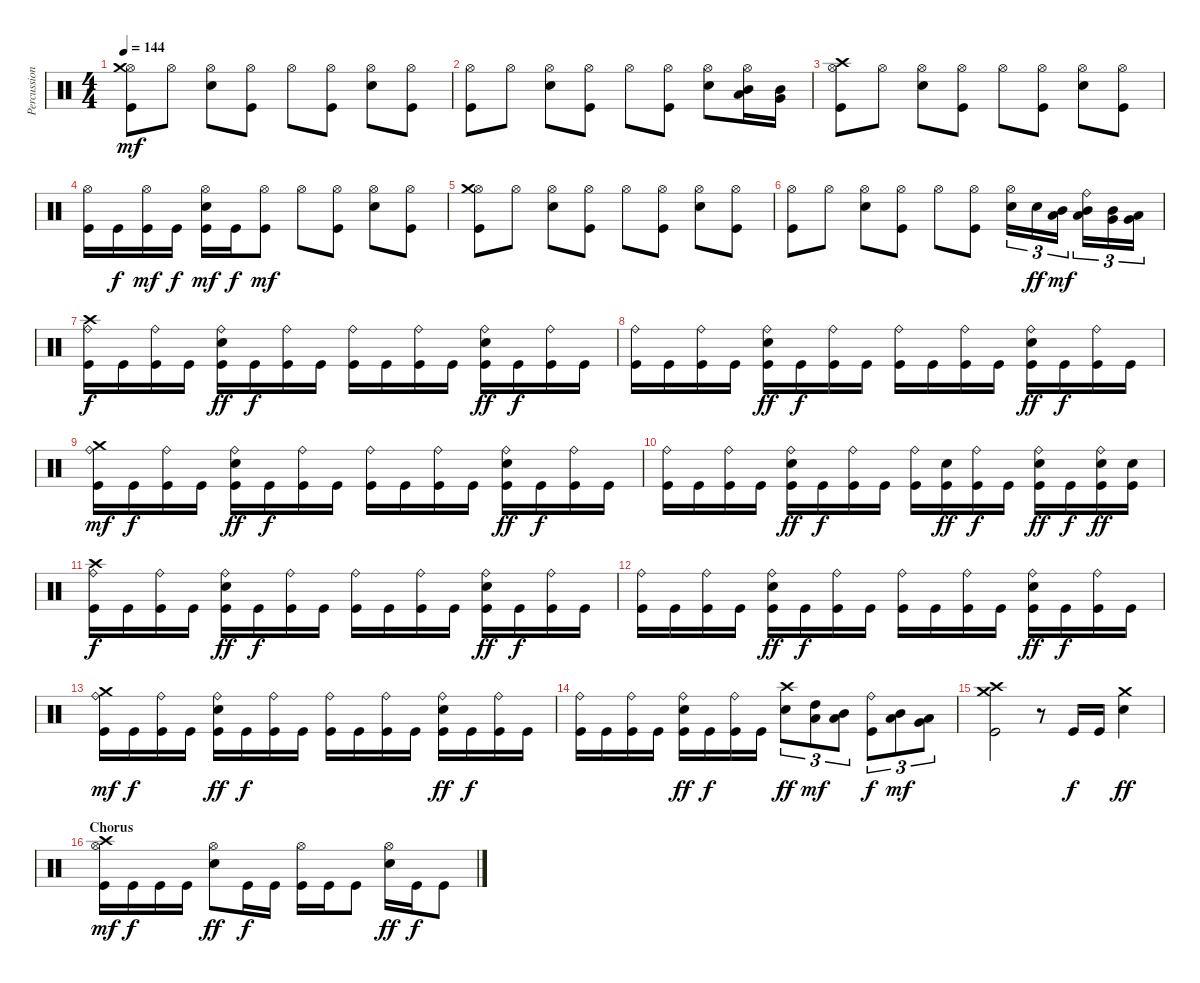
\track ("Percussions" "Percussion") {instrument percussion}
\staff {score}
\articulation defaults
\ts (4 4)
\tempo 144
\clef neutral
\ks c
("Kick (hit)" "Hi-Hat (open)" "Crash medium (hit)").8{dy mf} "Hi-Hat (open)".8 ("Electric Snare (hit)" "Hi-Hat (open)").8 ("Kick (hit)" "Hi-Hat (open)").8 "Hi-Hat (open)".8 ("Kick (hit)" "Hi-Hat (open)").8 ("Electric Snare (hit)" "Hi-Hat (open)").8 ("Kick (hit)" "Hi-Hat (open)").8 |
("Kick (hit)" "Hi-Hat (open)").8 "Hi-Hat (open)".8 ("Electric Snare (hit)" "Hi-Hat (open)").8 ("Kick (hit)" "Hi-Hat (open)").8 "Hi-Hat (open)".8 ("Kick (hit)" "Hi-Hat (open)").8 ("Electric Snare (hit)" "Hi-Hat (open)").8 ("Low Tom (hit)" "Mid Tom (hit)" "Hi-Hat (open)").16 ("Very Low Tom (hit)" "Mid Tom (hit)").16 |
("Kick (hit)" "Hi-Hat (open)" "Crash high (hit)").8 "Hi-Hat (open)".8 ("Electric Snare (hit)" "Hi-Hat (open)").8 ("Kick (hit)" "Hi-Hat (open)").8 "Hi-Hat (open)".8 ("Kick (hit)" "Hi-Hat (open)").8 ("Electric Snare (hit)" "Hi-Hat (open)").8 ("Kick (hit)" "Hi-Hat (open)").8 |
("Kick (hit)" "Hi-Hat (open)").16 "Kick (hit)".16{dy f} ("Kick (hit)" "Hi-Hat (open)").16{dy mf} "Kick (hit)".16{dy f} ("Kick (hit)" "Electric Snare (hit)" "Hi-Hat (open)").16{dy mf} "Kick (hit)".16{dy f} ("Kick (hit)" "Hi-Hat (open)").8{dy mf} "Hi-Hat (open)".8 ("Kick (hit)" "Hi-Hat (open)").8 ("Electric Snare (hit)" "Hi-Hat (open)").8 ("Kick (hit)" "Hi-Hat (open)").8 |
("Kick (hit)" "Hi-Hat (open)" "Crash medium (hit)").8 "Hi-Hat (open)".8 ("Electric Snare (hit)" "Hi-Hat (open)").8 ("Kick (hit)" "Hi-Hat (open)").8 "Hi-Hat (open)".8 ("Kick (hit)" "Hi-Hat (open)").8 ("Electric Snare (hit)" "Hi-Hat (open)").8 ("Kick (hit)" "Hi-Hat (open)").8 |
("Kick (hit)" "Hi-Hat (open)").8 "Hi-Hat (open)".8 ("Electric Snare (hit)" "Hi-Hat (open)").8 ("Kick (hit)" "Hi-Hat (open)").8 "Hi-Hat (open)".8 ("Kick (hit)" "Hi-Hat (open)").8 ("Electric Snare (hit)" "Hi-Hat (open)").16{tu (3 2)} "Electric Snare (hit)".16{tu (3 2) dy ff} ("Low Tom (hit)" "Mid Tom (hit)").16{tu (3 2) dy mf} ("Low Tom (hit)" "Mid Tom (hit)" "Ride (bell)").16{tu (3 2)} ("Very Low Tom (hit)" "Mid Tom (hit)").16{tu (3 2)} ("Very Low Tom (hit)" "Low Tom (hit)").16{tu (3 2)} |
("Kick (hit)" "Ride (bell)" "Crash high (hit)").16{dy f} "Kick (hit)".16 ("Kick (hit)" "Ride (bell)").16 "Kick (hit)".16 ("Kick (hit)" "Electric Snare (hit)" "Ride (bell)").16{dy ff} "Kick (hit)".16{dy f} ("Kick (hit)" "Ride (bell)").16 "Kick (hit)".16 ("Kick (hit)" "Ride (bell)").16 "Kick (hit)".16 ("Kick (hit)" "Ride (bell)").16 "Kick (hit)".16 ("Kick (hit)" "Electric Snare (hit)" "Ride (bell)").16{dy ff} "Kick (hit)".16{dy f} ("Kick (hit)" "Ride (bell)").16 "Kick (hit)".16 |
("Kick (hit)" "Ride (bell)").16 "Kick (hit)".16 ("Kick (hit)" "Ride (bell)").16 "Kick (hit)".16 ("Kick (hit)" "Electric Snare (hit)" "Ride (bell)").16{dy ff} "Kick (hit)".16{dy f} ("Kick (hit)" "Ride (bell)").16 "Kick (hit)".16 ("Kick (hit)" "Ride (bell)").16 "Kick (hit)".16 ("Kick (hit)" "Ride (bell)").16 "Kick (hit)".16 ("Kick (hit)" "Electric Snare (hit)" "Ride (bell)").16{dy ff} "Kick (hit)".16{dy f} ("Kick (hit)" "Ride (bell)").16 "Kick (hit)".16 |
("Kick (hit)" "Ride (bell)" "Crash medium (hit)").16{dy mf} "Kick (hit)".16{dy f} ("Kick (hit)" "Ride (bell)").16 "Kick (hit)".16 ("Kick (hit)" "Electric Snare (hit)" "Ride (bell)").16{dy ff} "Kick (hit)".16{dy f} ("Kick (hit)" "Ride (bell)").16 "Kick (hit)".16 ("Kick (hit)" "Ride (bell)").16 "Kick (hit)".16 ("Kick (hit)" "Ride (bell)").16 "Kick (hit)".16 ("Kick (hit)" "Electric Snare (hit)" "Ride (bell)").16{dy ff} "Kick (hit)".16{dy f} ("Kick (hit)" "Ride (bell)").16 "Kick (hit)".16 |
("Kick (hit)" "Ride (bell)").16 "Kick (hit)".16 ("Kick (hit)" "Ride (bell)").16 "Kick (hit)".16 ("Kick (hit)" "Electric Snare (hit)" "Ride (bell)").16{dy ff} "Kick (hit)".16{dy f} ("Kick (hit)" "Ride (bell)").16 "Kick (hit)".16 ("Kick (hit)" "Ride (bell)").16 ("Kick (hit)" "Electric Snare (hit)").16{dy ff} ("Kick (hit)" "Ride (bell)").16{dy f} "Kick (hit)".16 ("Kick (hit)" "Electric Snare (hit)" "Ride (bell)").16{dy ff} "Kick (hit)".16{dy f} ("Kick (hit)" "Electric Snare (hit)" "Ride (bell)").16{dy ff} ("Kick (hit)" "Electric Snare (hit)").16 |
("Kick (hit)" "Ride (bell)" "Crash high (hit)").16{dy f} "Kick (hit)".16 ("Kick (hit)" "Ride (bell)").16 "Kick (hit)".16 ("Kick (hit)" "Electric Snare (hit)" "Ride (bell)").16{dy ff} "Kick (hit)".16{dy f} ("Kick (hit)" "Ride (bell)").16 "Kick (hit)".16 ("Kick (hit)" "Ride (bell)").16 "Kick (hit)".16 ("Kick (hit)" "Ride (bell)").16 "Kick (hit)".16 ("Kick (hit)" "Electric Snare (hit)" "Ride (bell)").16{dy ff} "Kick (hit)".16{dy f} ("Kick (hit)" "Ride (bell)").16 "Kick (hit)".16 |
("Kick (hit)" "Ride (bell)").16 "Kick (hit)".16 ("Kick (hit)" "Ride (bell)").16 "Kick (hit)".16 ("Kick (hit)" "Electric Snare (hit)" "Ride (bell)").16{dy ff} "Kick (hit)".16{dy f} ("Kick (hit)" "Ride (bell)").16 "Kick (hit)".16 ("Kick (hit)" "Ride (bell)").16 "Kick (hit)".16 ("Kick (hit)" "Ride (bell)").16 "Kick (hit)".16 ("Kick (hit)" "Electric Snare (hit)" "Ride (bell)").16{dy ff} "Kick (hit)".16{dy f} ("Kick (hit)" "Ride (bell)").16 "Kick (hit)".16 |
("Kick (hit)" "Ride (bell)" "Crash medium (hit)").16{dy mf} "Kick (hit)".16{dy f} ("Kick (hit)" "Ride (bell)").16 "Kick (hit)".16 ("Kick (hit)" "Electric Snare (hit)" "Ride (bell)").16{dy ff} "Kick (hit)".16{dy f} ("Kick (hit)" "Ride (bell)").16 "Kick (hit)".16 ("Kick (hit)" "Ride (bell)").16 "Kick (hit)".16 ("Kick (hit)" "Ride (bell)").16 "Kick (hit)".16 ("Kick (hit)" "Electric Snare (hit)" "Ride (bell)").16{dy ff} "Kick (hit)".16{dy f} ("Kick (hit)" "Ride (bell)").16 "Kick (hit)".16 |
("Kick (hit)" "Ride (bell)").16 "Kick (hit)".16 ("Kick (hit)" "Ride (bell)").16 "Kick (hit)".16 ("Kick (hit)" "Electric Snare (hit)" "Ride (bell)").16{dy ff} "Kick (hit)".16{dy f} ("Kick (hit)" "Ride (bell)").16 "Kick (hit)".16 ("Electric Snare (hit)" "Crash high (hit)").8{tu (3 2) dy ff} ("Low Tom (hit)" "High Tom (hit)").8{tu (3 2) dy mf} ("Low Tom (hit)" "Mid Tom (hit)").8{tu (3 2)} ("Kick (hit)" "Ride (bell)").8{tu (3 2) dy f} ("Low Tom (hit)" "Mid Tom (hit)").8{tu (3 2) dy mf} ("Very Low Tom (hit)" "Low Tom (hit)").8{tu (3 2)} |
("Kick (hit)" "Crash high (hit)" "Crash medium (hit)").2 r.8 "Kick (hit)".16{dy f} "Kick (hit)".16 ("Electric Snare (hit)" "Crash medium (hit)").4{dy ff} |
\section ("" "Chorus")
("Kick (hit)" "Hi-Hat (open)" "Crash high (hit)").16{dy mf} "Kick (hit)".16{dy f} "Kick (hit)".16 "Kick (hit)".16 ("Electric Snare (hit)" "Hi-Hat (open)").8{dy ff} "Kick (hit)".16{dy f} "Kick (hit)".16 ("Kick (hit)" "Hi-Hat (open)").16 "Kick (hit)".16 "Kick (hit)".8 ("Electric Snare (hit)" "Hi-Hat (open)").16{dy ff} "Kick (hit)".16{dy f} "Kick (hit)".8
